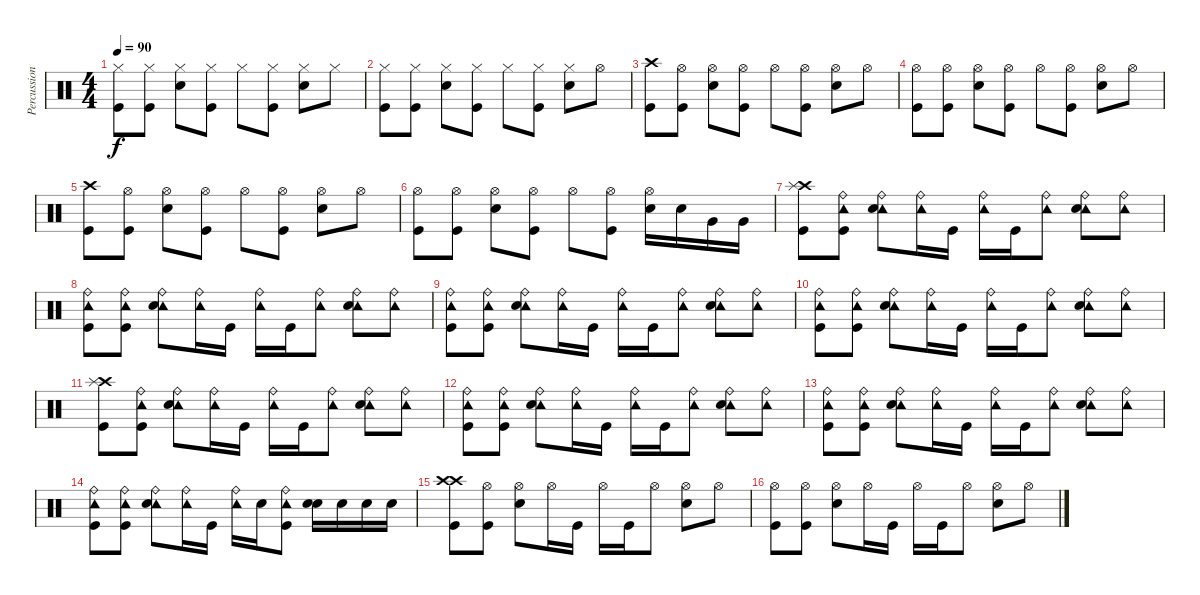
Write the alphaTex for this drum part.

\track ("Percussion" "Percussion") {instrument percussion}
\staff {score}
\articulation defaults
\ts (4 4)
\tempo 90
\clef neutral
\ks c
("Hi-Hat (closed)" "Kick (hit)").8{dy f} ("Hi-Hat (closed)" "Kick (hit)").8 ("Hi-Hat (closed)" "Electric Snare (hit)").8 ("Hi-Hat (closed)" "Kick (hit)").8 "Hi-Hat (closed)".8 ("Hi-Hat (closed)" "Kick (hit)").8 ("Hi-Hat (closed)" "Electric Snare (hit)").8 "Hi-Hat (closed)".8 |
("Hi-Hat (closed)" "Kick (hit)").8 ("Hi-Hat (closed)" "Kick (hit)").8 ("Hi-Hat (closed)" "Electric Snare (hit)").8 ("Hi-Hat (closed)" "Kick (hit)").8 "Hi-Hat (closed)".8 ("Hi-Hat (closed)" "Kick (hit)").8 ("Hi-Hat (closed)" "Electric Snare (hit)").8 "Hi-Hat (open)".8 |
("Crash high (hit)" "Kick (hit)").8 ("Hi-Hat (open)" "Kick (hit)").8 ("Hi-Hat (open)" "Electric Snare (hit)").8 ("Hi-Hat (open)" "Kick (hit)").8 "Hi-Hat (open)".8 ("Hi-Hat (open)" "Kick (hit)").8 ("Hi-Hat (open)" "Electric Snare (hit)").8 "Hi-Hat (open)".8 |
("Hi-Hat (open)" "Kick (hit)").8 ("Hi-Hat (open)" "Kick (hit)").8 ("Hi-Hat (open)" "Electric Snare (hit)").8 ("Hi-Hat (open)" "Kick (hit)").8 "Hi-Hat (open)".8 ("Hi-Hat (open)" "Kick (hit)").8 ("Hi-Hat (open)" "Electric Snare (hit)").8 "Hi-Hat (open)".8 |
("Crash high (hit)" "Kick (hit)").8 ("Hi-Hat (open)" "Kick (hit)").8 ("Hi-Hat (open)" "Electric Snare (hit)").8 ("Hi-Hat (open)" "Kick (hit)").8 "Hi-Hat (open)".8 ("Hi-Hat (open)" "Kick (hit)").8 ("Hi-Hat (open)" "Electric Snare (hit)").8 "Hi-Hat (open)".8 |
("Hi-Hat (open)" "Kick (hit)").8 ("Hi-Hat (open)" "Kick (hit)").8 ("Hi-Hat (open)" "Electric Snare (hit)").8 ("Hi-Hat (open)" "Kick (hit)").8 "Hi-Hat (open)".8 ("Hi-Hat (open)" "Kick (hit)").8 ("Hi-Hat (open)" "Electric Snare (hit)").16 "Electric Snare (hit)".16 "Very Low Tom (hit)".16 "Very Low Tom (hit)".16 |
("Crash high (hit)" "Splash (hit)" "Kick (hit)").8 ("Tambourine (hit)" "Ride (bell)" "Kick (hit)").8 ("Tambourine (hit)" "Ride (bell)" "Electric Snare (hit)").8 ("Tambourine (hit)" "Ride (bell)").16 "Kick (hit)".16 ("Tambourine (hit)" "Ride (bell)").16 "Kick (hit)".16 ("Tambourine (hit)" "Ride (bell)").8 ("Tambourine (hit)" "Ride (bell)" "Electric Snare (hit)").8 ("Tambourine (hit)" "Ride (bell)").8 |
("Tambourine (hit)" "Ride (bell)" "Kick (hit)").8 ("Tambourine (hit)" "Ride (bell)" "Kick (hit)").8 ("Tambourine (hit)" "Ride (bell)" "Electric Snare (hit)").8 ("Tambourine (hit)" "Ride (bell)").16 "Kick (hit)".16 ("Tambourine (hit)" "Ride (bell)").16 "Kick (hit)".16 ("Tambourine (hit)" "Ride (bell)").8 ("Tambourine (hit)" "Ride (bell)" "Electric Snare (hit)").8 ("Tambourine (hit)" "Ride (bell)").8 |
("Tambourine (hit)" "Ride (bell)" "Kick (hit)").8 ("Tambourine (hit)" "Ride (bell)" "Kick (hit)").8 ("Tambourine (hit)" "Ride (bell)" "Electric Snare (hit)").8 ("Tambourine (hit)" "Ride (bell)").16 "Kick (hit)".16 ("Tambourine (hit)" "Ride (bell)").16 "Kick (hit)".16 ("Tambourine (hit)" "Ride (bell)").8 ("Tambourine (hit)" "Ride (bell)" "Electric Snare (hit)").8 ("Tambourine (hit)" "Ride (bell)").8 |
("Tambourine (hit)" "Ride (bell)" "Kick (hit)").8 ("Tambourine (hit)" "Ride (bell)" "Kick (hit)").8 ("Tambourine (hit)" "Ride (bell)" "Electric Snare (hit)").8 ("Tambourine (hit)" "Ride (bell)").16 "Kick (hit)".16 ("Tambourine (hit)" "Ride (bell)").16 "Kick (hit)".16 ("Tambourine (hit)" "Ride (bell)").8 ("Tambourine (hit)" "Ride (bell)" "Electric Snare (hit)").8 ("Tambourine (hit)" "Ride (bell)").8 |
("Crash high (hit)" "Splash (hit)" "Kick (hit)").8 ("Tambourine (hit)" "Ride (bell)" "Kick (hit)").8 ("Tambourine (hit)" "Ride (bell)" "Electric Snare (hit)").8 ("Tambourine (hit)" "Ride (bell)").16 "Kick (hit)".16 ("Tambourine (hit)" "Ride (bell)").16 "Kick (hit)".16 ("Tambourine (hit)" "Ride (bell)").8 ("Tambourine (hit)" "Ride (bell)" "Electric Snare (hit)").8 ("Tambourine (hit)" "Ride (bell)").8 |
("Tambourine (hit)" "Ride (bell)" "Kick (hit)").8 ("Tambourine (hit)" "Ride (bell)" "Kick (hit)").8 ("Tambourine (hit)" "Ride (bell)" "Electric Snare (hit)").8 ("Tambourine (hit)" "Ride (bell)").16 "Kick (hit)".16 ("Tambourine (hit)" "Ride (bell)").16 "Kick (hit)".16 ("Tambourine (hit)" "Ride (bell)").8 ("Tambourine (hit)" "Ride (bell)" "Electric Snare (hit)").8 ("Tambourine (hit)" "Ride (bell)").8 |
("Tambourine (hit)" "Ride (bell)" "Kick (hit)").8 ("Tambourine (hit)" "Ride (bell)" "Kick (hit)").8 ("Tambourine (hit)" "Ride (bell)" "Electric Snare (hit)").8 ("Tambourine (hit)" "Ride (bell)").16 "Kick (hit)".16 ("Tambourine (hit)" "Ride (bell)").16 "Kick (hit)".16 ("Tambourine (hit)" "Ride (bell)").8 ("Tambourine (hit)" "Ride (bell)" "Electric Snare (hit)").8 ("Tambourine (hit)" "Ride (bell)").8 |
("Tambourine (hit)" "Ride (bell)" "Kick (hit)").8 ("Tambourine (hit)" "Ride (bell)" "Kick (hit)").8 ("Tambourine (hit)" "Ride (bell)" "Electric Snare (hit)").8 ("Tambourine (hit)" "Ride (bell)").16 "Kick (hit)".16 ("Tambourine (hit)" "Ride (bell)").16 "Electric Snare (hit)".16 ("Tambourine (hit)" "Ride (bell)" "Kick (hit)").8 ("Electric Snare (hit)" "Electric Snare (hit)").16 "Electric Snare (hit)".16 "Electric Snare (hit)".16 "Electric Snare (hit)".16 |
("Crash high (hit)" "Crash high (hit)" "Kick (hit)").8 ("Hi-Hat (open)" "Kick (hit)").8 ("Hi-Hat (open)" "Electric Snare (hit)").8 "Hi-Hat (open)".16 "Kick (hit)".16 "Hi-Hat (open)".16 "Kick (hit)".16 "Hi-Hat (open)".8 ("Hi-Hat (open)" "Electric Snare (hit)").8 "Hi-Hat (open)".8 |
("Hi-Hat (open)" "Kick (hit)").8 ("Hi-Hat (open)" "Kick (hit)").8 ("Hi-Hat (open)" "Electric Snare (hit)").8 "Hi-Hat (open)".16 "Kick (hit)".16 "Hi-Hat (open)".16 "Kick (hit)".16 "Hi-Hat (open)".8 ("Hi-Hat (open)" "Electric Snare (hit)").8 "Hi-Hat (open)".8
